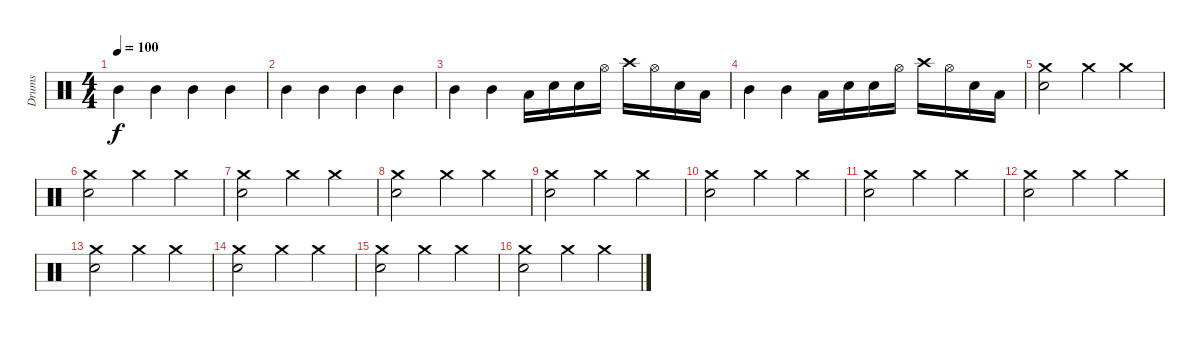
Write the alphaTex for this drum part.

\track ("Drums" "Drums") {instrument percussion}
\staff {score}
\articulation defaults
\ts (4 4)
\tempo 100
\clef neutral
\ks c "Mid Tom (hit)".4{dy f} "Mid Tom (hit)".4 "Mid Tom (hit)".4 "Mid Tom (hit)".4
|
"Mid Tom (hit)".4 "Mid Tom (hit)".4 "Mid Tom (hit)".4 "Mid Tom (hit)".4 |
"Mid Tom (hit)".4 "Mid Tom (hit)".4 "Low Tom (hit)".16 "Snare (hit) 2".16 "Snare (hit) 2".16 "Hi-Hat (open)".16 "Crash high (hit)".16 "Hi-Hat (open)".16 "Snare (hit) 2".16 "Low Tom (hit)".16 |
"Mid Tom (hit)".4 "Mid Tom (hit)".4 "Low Tom (hit)".16 "Snare (hit) 2".16 "Snare (hit) 2".16 "Hi-Hat (open)".16 "Crash high (hit)".16 "Hi-Hat (open)".16 "Snare (hit) 2".16 "Low Tom (hit)".16 |
("Crash medium (hit)" "Snare (hit) 2").2 "Crash medium (hit)".4 "Crash medium (hit)".4 |
("Crash medium (hit)" "Snare (hit) 2").2 "Crash medium (hit)".4 "Crash medium (hit)".4 |
("Crash medium (hit)" "Snare (hit) 2").2 "Crash medium (hit)".4 "Crash medium (hit)".4 |
("Crash medium (hit)" "Snare (hit) 2").2 "Crash medium (hit)".4 "Crash medium (hit)".4 |
("Crash medium (hit)" "Snare (hit) 2").2 "Crash medium (hit)".4 "Crash medium (hit)".4 |
("Crash medium (hit)" "Snare (hit) 2").2 "Crash medium (hit)".4 "Crash medium (hit)".4 |
("Crash medium (hit)" "Snare (hit) 2").2 "Crash medium (hit)".4 "Crash medium (hit)".4 |
("Crash medium (hit)" "Snare (hit) 2").2 "Crash medium (hit)".4 "Crash medium (hit)".4 |
("Crash medium (hit)" "Snare (hit) 2").2 "Crash medium (hit)".4 "Crash medium (hit)".4 |
("Crash medium (hit)" "Snare (hit) 2").2 "Crash medium (hit)".4 "Crash medium (hit)".4 |
("Crash medium (hit)" "Snare (hit) 2").2 "Crash medium (hit)".4 "Crash medium (hit)".4 |
("Crash medium (hit)" "Snare (hit) 2").2 "Crash medium (hit)".4 "Crash medium (hit)".4
